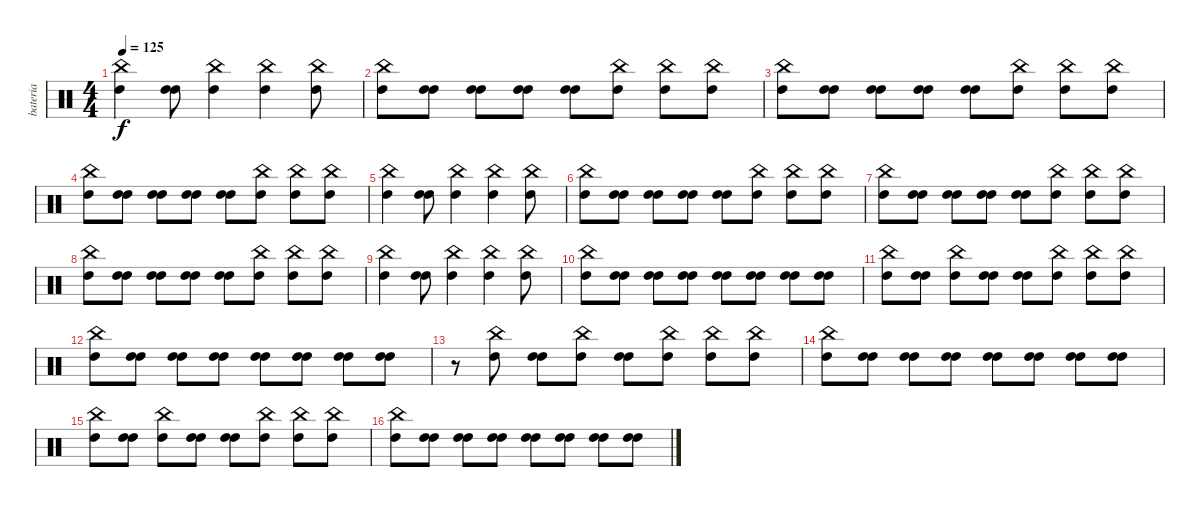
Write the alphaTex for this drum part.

\track ("bateria" "bateria") {instrument percussion}
\staff {score}
\articulation defaults
\ts (4 4)
\tempo 125
\clef neutral
\ks c
("China (hit)" "High Tom (hit)").4{dy f} ("High Tom (hit)" "High Tom (hit)").8 ("China (hit)" "High Tom (hit)").4 ("China (hit)" "High Tom (hit)").4 ("China (hit)" "High Tom (hit)").8 |
("China (hit)" "High Tom (hit)").8 ("High Tom (hit)" "High Tom (hit)").8 ("High Tom (hit)" "High Tom (hit)").8 ("High Tom (hit)" "High Tom (hit)").8 ("High Tom (hit)" "High Tom (hit)").8 ("China (hit)" "High Tom (hit)").8 ("China (hit)" "High Tom (hit)").8 ("China (hit)" "High Tom (hit)").8 |
("China (hit)" "High Tom (hit)").8 ("High Tom (hit)" "High Tom (hit)").8 ("High Tom (hit)" "High Tom (hit)").8 ("High Tom (hit)" "High Tom (hit)").8 ("High Tom (hit)" "High Tom (hit)").8 ("China (hit)" "High Tom (hit)").8 ("China (hit)" "High Tom (hit)").8 ("China (hit)" "High Tom (hit)").8 |
("China (hit)" "High Tom (hit)").8 ("High Tom (hit)" "High Tom (hit)").8 ("High Tom (hit)" "High Tom (hit)").8 ("High Tom (hit)" "High Tom (hit)").8 ("High Tom (hit)" "High Tom (hit)").8 ("China (hit)" "High Tom (hit)").8 ("China (hit)" "High Tom (hit)").8 ("China (hit)" "High Tom (hit)").8 |
("China (hit)" "High Tom (hit)").4 ("High Tom (hit)" "High Tom (hit)").8 ("China (hit)" "High Tom (hit)").4 ("China (hit)" "High Tom (hit)").4 ("China (hit)" "High Tom (hit)").8 |
("China (hit)" "High Tom (hit)").8 ("High Tom (hit)" "High Tom (hit)").8 ("High Tom (hit)" "High Tom (hit)").8 ("High Tom (hit)" "High Tom (hit)").8 ("High Tom (hit)" "High Tom (hit)").8 ("China (hit)" "High Tom (hit)").8 ("China (hit)" "High Tom (hit)").8 ("China (hit)" "High Tom (hit)").8 |
("China (hit)" "High Tom (hit)").8 ("High Tom (hit)" "High Tom (hit)").8 ("High Tom (hit)" "High Tom (hit)").8 ("High Tom (hit)" "High Tom (hit)").8 ("High Tom (hit)" "High Tom (hit)").8 ("China (hit)" "High Tom (hit)").8 ("China (hit)" "High Tom (hit)").8 ("China (hit)" "High Tom (hit)").8 |
("China (hit)" "High Tom (hit)").8 ("High Tom (hit)" "High Tom (hit)").8 ("High Tom (hit)" "High Tom (hit)").8 ("High Tom (hit)" "High Tom (hit)").8 ("High Tom (hit)" "High Tom (hit)").8 ("China (hit)" "High Tom (hit)").8 ("China (hit)" "High Tom (hit)").8 ("China (hit)" "High Tom (hit)").8 |
("China (hit)" "High Tom (hit)").4 ("High Tom (hit)" "High Tom (hit)").8 ("China (hit)" "High Tom (hit)").4 ("China (hit)" "High Tom (hit)").4 ("China (hit)" "High Tom (hit)").8 |
("China (hit)" "High Tom (hit)").8 ("High Tom (hit)" "High Tom (hit)").8 ("High Tom (hit)" "High Tom (hit)").8 ("High Tom (hit)" "High Tom (hit)").8 ("High Tom (hit)" "High Tom (hit)").8 ("High Tom (hit)" "High Tom (hit)").8 ("High Tom (hit)" "High Tom (hit)").8 ("High Tom (hit)" "High Tom (hit)").8 |
("China (hit)" "High Tom (hit)").8 ("High Tom (hit)" "High Tom (hit)").8 ("China (hit)" "High Tom (hit)").8 ("High Tom (hit)" "High Tom (hit)").8 ("High Tom (hit)" "High Tom (hit)").8 ("China (hit)" "High Tom (hit)").8 ("China (hit)" "High Tom (hit)").8 ("China (hit)" "High Tom (hit)").8 |
("China (hit)" "High Tom (hit)").8 ("High Tom (hit)" "High Tom (hit)").8 ("High Tom (hit)" "High Tom (hit)").8 ("High Tom (hit)" "High Tom (hit)").8 ("High Tom (hit)" "High Tom (hit)").8 ("High Tom (hit)" "High Tom (hit)").8 ("High Tom (hit)" "High Tom (hit)").8 ("High Tom (hit)" "High Tom (hit)").8 |
r.8 ("China (hit)" "High Tom (hit)").8 ("High Tom (hit)" "High Tom (hit)").8 ("China (hit)" "High Tom (hit)").8 ("High Tom (hit)" "High Tom (hit)").8 ("China (hit)" "High Tom (hit)").8 ("China (hit)" "High Tom (hit)").8 ("China (hit)" "High Tom (hit)").8 |
("China (hit)" "High Tom (hit)").8 ("High Tom (hit)" "High Tom (hit)").8 ("High Tom (hit)" "High Tom (hit)").8 ("High Tom (hit)" "High Tom (hit)").8 ("High Tom (hit)" "High Tom (hit)").8 ("High Tom (hit)" "High Tom (hit)").8 ("High Tom (hit)" "High Tom (hit)").8 ("High Tom (hit)" "High Tom (hit)").8 |
("China (hit)" "High Tom (hit)").8 ("High Tom (hit)" "High Tom (hit)").8 ("China (hit)" "High Tom (hit)").8 ("High Tom (hit)" "High Tom (hit)").8 ("High Tom (hit)" "High Tom (hit)").8 ("China (hit)" "High Tom (hit)").8 ("China (hit)" "High Tom (hit)").8 ("China (hit)" "High Tom (hit)").8 |
("China (hit)" "High Tom (hit)").8 ("High Tom (hit)" "High Tom (hit)").8 ("High Tom (hit)" "High Tom (hit)").8 ("High Tom (hit)" "High Tom (hit)").8 ("High Tom (hit)" "High Tom (hit)").8 ("High Tom (hit)" "High Tom (hit)").8 ("High Tom (hit)" "High Tom (hit)").8 ("High Tom (hit)" "High Tom (hit)").8
